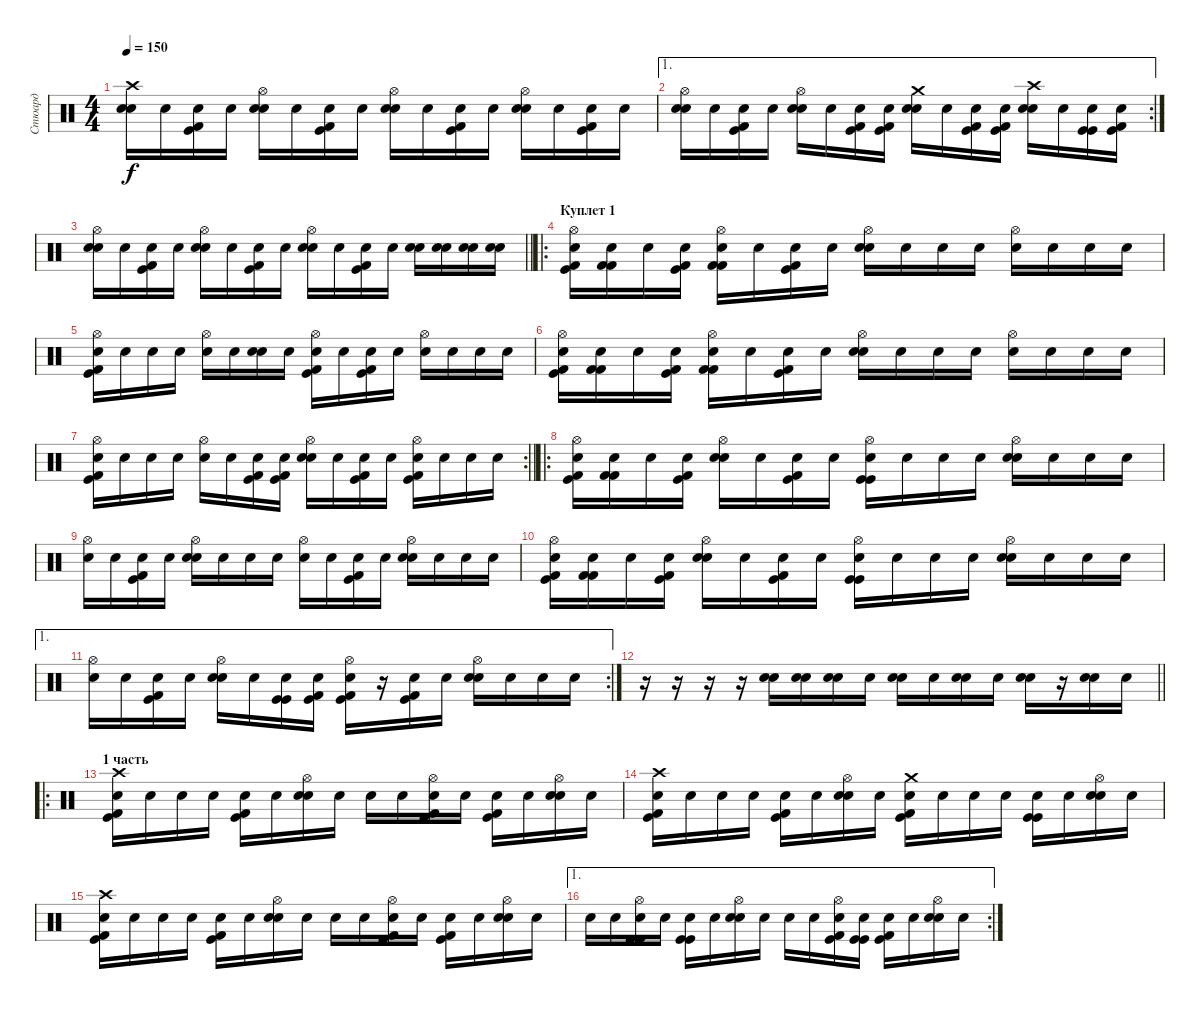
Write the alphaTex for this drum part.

\track ("Стюард" "Стюард") {instrument percussion}
\staff {score}
\articulation defaults
\ts (4 4)
\tempo 150
\clef neutral
\ks c
("Crash high (hit)" "Snare (hit) 2" "Snare (hit)"{x}).16{dy f} "Snare (hit)"{x}.16 ("Kick (hit) 2" "Kick (hit)" "Snare (hit)"{x}).16 "Snare (hit)"{x}.16 ("Hi-Hat (open)" "Snare (hit) 2" "Snare (hit)"{x}).16 "Snare (hit)"{x}.16 ("Kick (hit) 2" "Kick (hit)" "Snare (hit)"{x}).16 "Snare (hit)"{x}.16 ("Hi-Hat (open)" "Snare (hit) 2" "Snare (hit)"{x}).16 "Snare (hit)"{x}.16 ("Kick (hit) 2" "Kick (hit)" "Snare (hit)"{x}).16 "Snare (hit)"{x}.16 ("Hi-Hat (open)" "Snare (hit) 2" "Snare (hit)"{x}).16 "Snare (hit)"{x}.16 ("Kick (hit) 2" "Kick (hit)" "Snare (hit)"{x}).16 "Snare (hit)"{x}.16 |
\ae 1
\rc 2
("Hi-Hat (open)" "Snare (hit) 2" "Snare (hit)"{x}).16 "Snare (hit)"{x}.16 ("Kick (hit) 2" "Kick (hit)" "Snare (hit)"{x}).16 "Snare (hit)"{x}.16 ("Hi-Hat (open)" "Snare (hit) 2" "Snare (hit)"{x}).16 "Snare (hit)"{x}.16 ("Kick (hit) 2" "Kick (hit)" "Snare (hit)"{x}).16 ("Kick (hit) 2" "Kick (hit)" "Snare (hit)"{x}).16 ("Crash medium (hit)" "Snare (hit) 2" "Snare (hit)"{x}).16 "Snare (hit)"{x}.16 ("Kick (hit) 2" "Kick (hit)" "Snare (hit)"{x}).16 ("Kick (hit) 2" "Kick (hit)" "Snare (hit)"{x}).16 ("Crash high (hit)" "Snare (hit) 2" "Snare (hit)"{x}).16 "Snare (hit)"{x}.16 ("Kick (hit)" "Kick (hit)" "Snare (hit)"{x}).16 ("Kick (hit)" "Kick (hit) 2" "Snare (hit)"{x}).16 |
\barLineRight lightlight
("Hi-Hat (open)" "Snare (hit) 2" "Snare (hit)"{x}).16 "Snare (hit)"{x}.16 ("Kick (hit) 2" "Kick (hit)" "Snare (hit)"{x}).16 "Snare (hit)"{x}.16 ("Hi-Hat (open)" "Snare (hit) 2" "Snare (hit)"{x}).16 "Snare (hit)"{x}.16 ("Kick (hit)" "Kick (hit) 2" "Snare (hit)"{x}).16 "Snare (hit)"{x}.16 ("Hi-Hat (open)" "Snare (hit) 2" "Snare (hit)"{x}).16 "Snare (hit)"{x}.16 ("Kick (hit)" "Kick (hit) 2" "Snare (hit)"{x}).16 "Snare (hit)"{x}.16 ("Snare (hit) 2" "Snare (hit)"{x}).16 ("Snare (hit) 2" "Snare (hit)"{x}).16 ("Snare (hit) 2" "Snare (hit)"{x}).16 ("Snare (hit) 2" "Snare (hit)"{x}).16 |
\ro
\section ("" "Куплет 1")
("Hi-Hat (open)" "Kick (hit) 2" "Kick (hit)" "Snare (hit)"{x}).16 ("Kick (hit) 2" "Kick (hit) 2" "Snare (hit)"{x}).16 "Snare (hit)"{x}.16 ("Kick (hit) 2" "Kick (hit)" "Snare (hit)"{x}).16 ("Hi-Hat (open)" "Kick (hit) 2" "Kick (hit) 2" "Snare (hit)"{x}).16 "Snare (hit)"{x}.16 ("Kick (hit) 2" "Kick (hit)" "Snare (hit)"{x}).16 "Snare (hit)"{x}.16 ("Hi-Hat (open)" "Snare (hit) 2" "Snare (hit)"{x}).16 "Snare (hit)"{x}.16 "Snare (hit)"{x}.16 "Snare (hit)"{x}.16 ("Hi-Hat (open)" "Snare (hit)"{x}).16 "Snare (hit)"{x}.16 "Snare (hit)"{x}.16 "Snare (hit)"{x}.16 |
("Hi-Hat (open)" "Kick (hit) 2" "Kick (hit)" "Snare (hit)"{x}).16 "Snare (hit)"{x}.16 "Snare (hit)"{x}.16 "Snare (hit)"{x}.16 ("Hi-Hat (open)" "Snare (hit)"{x}).16 "Snare (hit)"{x}.16 ("Snare (hit) 2" "Snare (hit)"{x}).16 "Snare (hit)"{x}.16 ("Hi-Hat (open)" "Kick (hit) 2" "Kick (hit)" "Snare (hit)"{x}).16 "Snare (hit)"{x}.16 ("Kick (hit) 2" "Kick (hit)" "Snare (hit)"{x}).16 "Snare (hit)"{x}.16 ("Hi-Hat (open)" "Snare (hit)"{x}).16 "Snare (hit)"{x}.16 "Snare (hit)"{x}.16 "Snare (hit)"{x}.16 |
("Hi-Hat (open)" "Kick (hit) 2" "Kick (hit)" "Snare (hit)"{x}).16 ("Kick (hit) 2" "Kick (hit) 2" "Snare (hit)"{x}).16 "Snare (hit)"{x}.16 ("Kick (hit) 2" "Kick (hit)" "Snare (hit)"{x}).16 ("Hi-Hat (open)" "Kick (hit) 2" "Kick (hit) 2" "Snare (hit)"{x}).16 "Snare (hit)"{x}.16 ("Kick (hit) 2" "Kick (hit)" "Snare (hit)"{x}).16 "Snare (hit)"{x}.16 ("Hi-Hat (open)" "Snare (hit) 2" "Snare (hit)"{x}).16 "Snare (hit)"{x}.16 "Snare (hit)"{x}.16 "Snare (hit)"{x}.16 ("Hi-Hat (open)" "Snare (hit)"{x}).16 "Snare (hit)"{x}.16 "Snare (hit)"{x}.16 "Snare (hit)"{x}.16 |
\rc 2
\barLineRight lightlight
("Hi-Hat (open)" "Kick (hit) 2" "Kick (hit)" "Snare (hit)"{x}).16 "Snare (hit)"{x}.16 "Snare (hit)"{x}.16 "Snare (hit)"{x}.16 ("Hi-Hat (open)" "Snare (hit)"{x}).16 "Snare (hit)"{x}.16 ("Kick (hit) 2" "Kick (hit)" "Snare (hit)"{x}).16 ("Kick (hit) 2" "Kick (hit)" "Snare (hit)"{x}).16 ("Hi-Hat (open)" "Snare (hit) 2" "Snare (hit)"{x}).16 "Snare (hit)"{x}.16 ("Kick (hit) 2" "Kick (hit)" "Snare (hit)"{x}).16 "Snare (hit)"{x}.16 ("Hi-Hat (open)" "Kick (hit) 2" "Kick (hit)" "Snare (hit)"{x}).16 "Snare (hit)"{x}.16 "Snare (hit)"{x}.16 "Snare (hit)"{x}.16 |
\ro
\section ("" "")
("Hi-Hat (open)" "Kick (hit) 2" "Kick (hit)" "Snare (hit)"{x}).16 ("Kick (hit) 2" "Kick (hit) 2" "Snare (hit)"{x}).16 "Snare (hit)"{x}.16 ("Kick (hit) 2" "Kick (hit)" "Snare (hit)"{x}).16 ("Hi-Hat (open)" "Snare (hit) 2" "Snare (hit)"{x}).16 "Snare (hit)"{x}.16 ("Kick (hit) 2" "Kick (hit)" "Snare (hit)"{x}).16 "Snare (hit)"{x}.16 ("Hi-Hat (open)" "Kick (hit)" "Kick (hit)" "Snare (hit)"{x}).16 "Snare (hit)"{x}.16 "Snare (hit)"{x}.16 "Snare (hit)"{x}.16 ("Hi-Hat (open)" "Snare (hit) 2" "Snare (hit)"{x}).16 "Snare (hit)"{x}.16 "Snare (hit)"{x}.16 "Snare (hit)"{x}.16 |
("Hi-Hat (open)" "Snare (hit)"{x}).16 "Snare (hit)"{x}.16 ("Kick (hit) 2" "Kick (hit)" "Snare (hit)"{x}).16 "Snare (hit)"{x}.16 ("Hi-Hat (open)" "Snare (hit) 2" "Snare (hit)"{x}).16 "Snare (hit)"{x}.16 "Snare (hit)"{x}.16 "Snare (hit)"{x}.16 ("Hi-Hat (open)" "Snare (hit)"{x}).16 "Snare (hit)"{x}.16 ("Kick (hit) 2" "Kick (hit)" "Snare (hit)"{x}).16 "Snare (hit)"{x}.16 ("Hi-Hat (open)" "Snare (hit) 2" "Snare (hit)"{x}).16 "Snare (hit)"{x}.16 "Snare (hit)"{x}.16 "Snare (hit)"{x}.16 |
("Hi-Hat (open)" "Kick (hit) 2" "Kick (hit)" "Snare (hit)"{x}).16 ("Kick (hit) 2" "Kick (hit) 2" "Snare (hit)"{x}).16 "Snare (hit)"{x}.16 ("Kick (hit) 2" "Kick (hit)" "Snare (hit)"{x}).16 ("Hi-Hat (open)" "Snare (hit) 2" "Snare (hit)"{x}).16 "Snare (hit)"{x}.16 ("Kick (hit) 2" "Kick (hit)" "Snare (hit)"{x}).16 "Snare (hit)"{x}.16 ("Hi-Hat (open)" "Kick (hit)" "Kick (hit)" "Snare (hit)"{x}).16 "Snare (hit)"{x}.16 "Snare (hit)"{x}.16 "Snare (hit)"{x}.16 ("Hi-Hat (open)" "Snare (hit) 2" "Snare (hit)"{x}).16 "Snare (hit)"{x}.16 "Snare (hit)"{x}.16 "Snare (hit)"{x}.16 |
\ae 1
\rc 2
("Hi-Hat (open)" "Snare (hit)"{x}).16 "Snare (hit)"{x}.16 ("Kick (hit) 2" "Kick (hit)" "Snare (hit)"{x}).16 "Snare (hit)"{x}.16 ("Hi-Hat (open)" "Snare (hit) 2" "Snare (hit)"{x}).16 "Snare (hit)"{x}.16 ("Kick (hit)" "Kick (hit)" "Snare (hit)"{x}).16 ("Kick (hit) 2" "Kick (hit)" "Snare (hit)"{x}).16 ("Hi-Hat (open)" "Kick (hit) 2" "Kick (hit)" "Snare (hit)"{x}).16 r.16 ("Kick (hit) 2" "Kick (hit)" "Snare (hit)"{x}).16 "Snare (hit)"{x}.16 ("Hi-Hat (open)" "Snare (hit) 2" "Snare (hit)"{x}).16 "Snare (hit)"{x}.16 "Snare (hit)"{x}.16 "Snare (hit)"{x}.16 |
\barLineRight lightlight
r.16 r.16 r.16 r.16 ("Snare (hit) 2" "Snare (hit)"{x}).16 ("Snare (hit) 2" "Snare (hit)"{x}).16 ("Snare (hit) 2" "Snare (hit)"{x}).16 "Snare (hit)"{x}.16 ("Snare (hit) 2" "Snare (hit)"{x}).16 "Snare (hit)"{x}.16 ("Snare (hit) 2" "Snare (hit)"{x}).16 "Snare (hit)"{x}.16 ("Snare (hit) 2" "Snare (hit)"{x}).16 r.16 ("Snare (hit) 2" "Snare (hit)"{x}).16 "Snare (hit)"{x}.16 |
\ro
\section ("" "1 часть")
("Crash high (hit)" "Kick (hit) 2" "Kick (hit)" "Snare (hit)"{x}).16 "Snare (hit)"{x}.16 "Snare (hit)"{x}.16 "Snare (hit)"{x}.16 ("Kick (hit) 2" "Kick (hit)" "Snare (hit)"{x}).16 "Snare (hit)"{x}.16 ("Hi-Hat (open)" "Snare (hit) 2" "Snare (hit)"{x}).16 "Snare (hit)"{x}.16 "Snare (hit)"{x}.16 "Snare (hit)"{x}.16 ("Hi-Hat (open)" "Kick (hit) 2" "Kick (hit)" "Snare (hit)"{x}).16 "Snare (hit)"{x}.16 ("Kick (hit) 2" "Kick (hit)" "Snare (hit)"{x}).16 "Snare (hit)"{x}.16 ("Hi-Hat (open)" "Snare (hit) 2" "Snare (hit)"{x}).16 "Snare (hit)"{x}.16 |
("Crash high (hit)" "Kick (hit) 2" "Kick (hit)" "Snare (hit)"{x}).16 "Snare (hit)"{x}.16 "Snare (hit)"{x}.16 "Snare (hit)"{x}.16 ("Kick (hit) 2" "Kick (hit)" "Snare (hit)"{x}).16 "Snare (hit)"{x}.16 ("Hi-Hat (open)" "Snare (hit) 2" "Snare (hit)"{x}).16 "Snare (hit)"{x}.16 ("Crash medium (hit)" "Kick (hit) 2" "Kick (hit)" "Snare (hit)"{x}).16 "Snare (hit)"{x}.16 "Snare (hit)"{x}.16 "Snare (hit)"{x}.16 ("Kick (hit)" "Kick (hit)" "Snare (hit)"{x}).16 "Snare (hit)"{x}.16 ("Hi-Hat (open)" "Snare (hit) 2" "Snare (hit)"{x}).16 "Snare (hit)"{x}.16 |
("Crash high (hit)" "Kick (hit) 2" "Kick (hit)" "Snare (hit)"{x}).16 "Snare (hit)"{x}.16 "Snare (hit)"{x}.16 "Snare (hit)"{x}.16 ("Kick (hit) 2" "Kick (hit)" "Snare (hit)"{x}).16 "Snare (hit)"{x}.16 ("Hi-Hat (open)" "Snare (hit) 2" "Snare (hit)"{x}).16 "Snare (hit)"{x}.16 "Snare (hit)"{x}.16 "Snare (hit)"{x}.16 ("Hi-Hat (open)" "Kick (hit) 2" "Kick (hit)" "Snare (hit)"{x}).16 "Snare (hit)"{x}.16 ("Kick (hit) 2" "Kick (hit)" "Snare (hit)"{x}).16 "Snare (hit)"{x}.16 ("Hi-Hat (open)" "Snare (hit) 2" "Snare (hit)"{x}).16 "Snare (hit)"{x}.16 |
\ae 1
\rc 2 "Snare (hit)"{x}.16 "Snare (hit)"{x}.16
("Hi-Hat (open)" "Kick (hit)" "Kick (hit)" "Snare (hit)"{x}).16 "Snare (hit)"{x}.16 ("Kick (hit)" "Kick (hit)" "Snare (hit)"{x}).16 "Snare (hit)"{x}.16 ("Hi-Hat (open)" "Snare (hit) 2" "Snare (hit)"{x}).16 "Snare (hit)"{x}.16 "Snare (hit)"{x}.16 "Snare (hit)"{x}.16 ("Hi-Hat (open)" "Kick (hit)" "Kick (hit) 2" "Snare (hit)"{x}).16 ("Kick (hit)" "Kick (hit)" "Snare (hit)"{x}).16 ("Kick (hit) 2" "Kick (hit)" "Snare (hit)"{x}).16 "Snare (hit)"{x}.16 ("Hi-Hat (open)" "Snare (hit) 2" "Snare (hit)"{x}).16 "Snare (hit)"{x}.16
